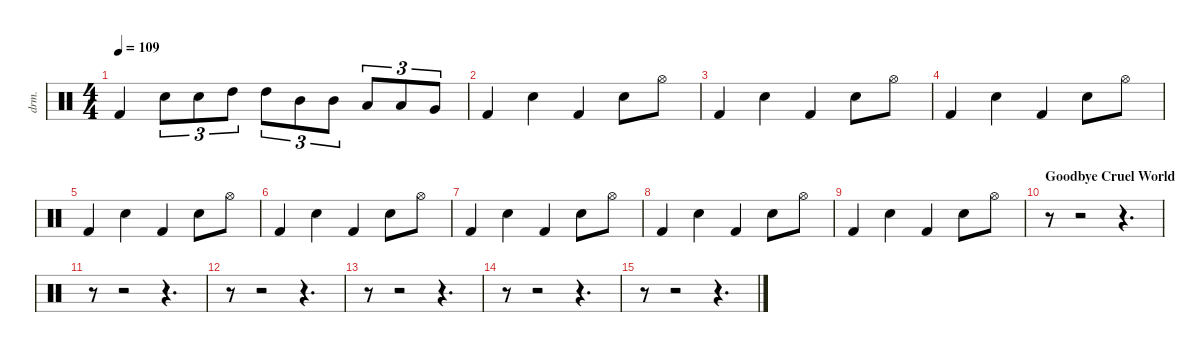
\defaultSystemsLayout 4
\hideDynamics
\bracketExtendMode nobrackets
\otherSystemsTrackNameOrientation horizontal
\track ("Drums" "drm.") {instrument percussion}
\staff {score}
\articulation defaults
\ts (4 4)
\tempo 109
\clef neutral
\ks c "Kick (hit) 2".4{dy f} "Snare (hit) 2".8{tu (3 2)} "Snare (hit) 2".8{tu (3 2)} "High Tom (hit)".8{tu (3 2)} "High Tom (hit)".8{tu (3 2)} "Mid Tom (hit)".8{tu (3 2)} "Mid Tom (hit)".8{tu (3 2)} "Low Tom (hit)".8{tu (3 2)} "Low Tom (hit)".8{tu (3 2)} "Very Low Tom (hit)".8{tu (3 2)}
|
"Kick (hit) 2".4 "Snare (hit) 2".4 "Kick (hit) 2".4 "Snare (hit) 2".8 "Hi-Hat (open)".8 |
"Kick (hit) 2".4 "Snare (hit) 2".4 "Kick (hit) 2".4 "Snare (hit) 2".8 "Hi-Hat (open)".8 |
"Kick (hit) 2".4 "Snare (hit) 2".4 "Kick (hit) 2".4 "Snare (hit) 2".8 "Hi-Hat (open)".8 |
"Kick (hit) 2".4 "Snare (hit) 2".4 "Kick (hit) 2".4 "Snare (hit) 2".8 "Hi-Hat (open)".8 |
"Kick (hit) 2".4 "Snare (hit) 2".4 "Kick (hit) 2".4 "Snare (hit) 2".8 "Hi-Hat (open)".8 |
"Kick (hit) 2".4 "Snare (hit) 2".4 "Kick (hit) 2".4 "Snare (hit) 2".8 "Hi-Hat (open)".8 |
"Kick (hit) 2".4 "Snare (hit) 2".4 "Kick (hit) 2".4 "Snare (hit) 2".8 "Hi-Hat (open)".8 |
"Kick (hit) 2".4 "Snare (hit) 2".4 "Kick (hit) 2".4 "Snare (hit) 2".8 "Hi-Hat (open)".8 |
\section ("" "Goodbye Cruel World")
r.8 r.2 r.4{d} |
r.8 r.2 r.4{d} |
r.8 r.2 r.4{d} |
r.8 r.2 r.4{d} |
r.8 r.2 r.4{d} |
r.8 r.2 r.4{d}
